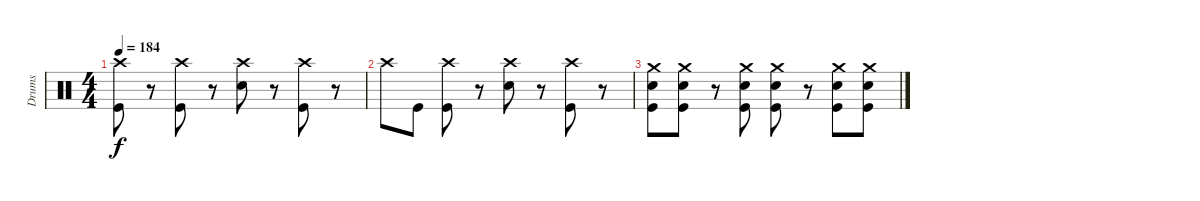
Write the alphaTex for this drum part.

\track ("Drums" "Drums") {instrument percussion}
\staff {score}
\articulation defaults
\ts (4 4)
\tempo 184
\clef neutral
\ks c
("Crash high (hit)" "Kick (hit)").8{dy f} r.8 ("Crash high (hit)" "Kick (hit)").8 r.8 ("Crash high (hit)" "Electric Snare (hit)").8 r.8 ("Crash high (hit)" "Kick (hit)").8 r.8 |
"Crash high (hit)".8 "Kick (hit)".8 ("Crash high (hit)" "Kick (hit)").8 r.8 ("Crash high (hit)" "Electric Snare (hit)").8 r.8 ("Crash high (hit)" "Kick (hit)").8 r.8 |
("Crash medium (hit)" "Electric Snare (hit)" "Kick (hit)").8 ("Crash medium (hit)" "Electric Snare (hit)" "Kick (hit)").8 r.8 ("Crash medium (hit)" "Electric Snare (hit)" "Kick (hit)").8 ("Crash medium (hit)" "Electric Snare (hit)" "Kick (hit)").8 r.8 ("Crash medium (hit)" "Electric Snare (hit)" "Kick (hit)").8 ("Crash medium (hit)" "Electric Snare (hit)" "Kick (hit)").8
